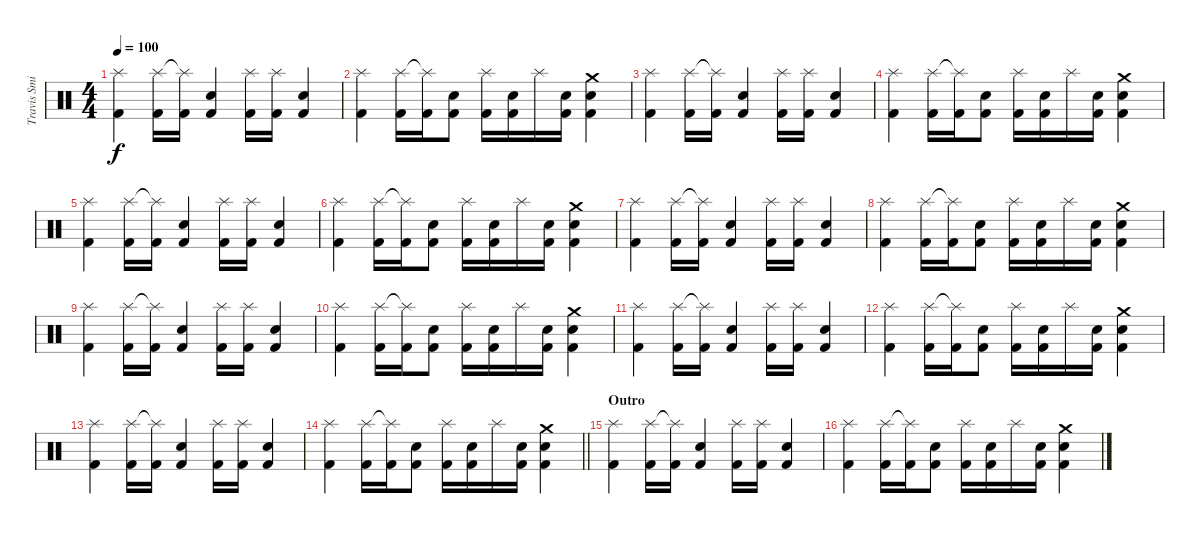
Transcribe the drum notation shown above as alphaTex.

\track ("Travis Smith" "Travis Smi") {instrument percussion}
\staff {score}
\articulation defaults
\ts (4 4)
\tempo 100
\clef neutral
\ks c
("Splash (hit)" "Kick (hit) 2").4{dy f} ("Splash (hit)" "Kick (hit) 2").16 ("Splash (hit)"{t} "Kick (hit) 2").16 ("Snare (hit) 2" "Kick (hit) 2").4 ("Splash (hit)" "Kick (hit) 2").16 ("Splash (hit)" "Kick (hit) 2").16 ("Snare (hit) 2" "Kick (hit) 2").4 |
("Splash (hit)" "Kick (hit) 2").4 ("Splash (hit)" "Kick (hit) 2").16 ("Splash (hit)"{t} "Kick (hit) 2").16 ("Snare (hit) 2" "Kick (hit) 2").8 ("Splash (hit)" "Kick (hit) 2").16 ("Snare (hit) 2" "Kick (hit) 2").16 "Splash (hit)".16 ("Snare (hit) 2" "Kick (hit) 2").16 ("Crash medium (hit)" "Snare (hit) 2" "Kick (hit) 2").4 |
("Splash (hit)" "Kick (hit) 2").4 ("Splash (hit)" "Kick (hit) 2").16 ("Splash (hit)"{t} "Kick (hit) 2").16 ("Snare (hit) 2" "Kick (hit) 2").4 ("Splash (hit)" "Kick (hit) 2").16 ("Splash (hit)" "Kick (hit) 2").16 ("Snare (hit) 2" "Kick (hit) 2").4 |
("Splash (hit)" "Kick (hit) 2").4 ("Splash (hit)" "Kick (hit) 2").16 ("Splash (hit)"{t} "Kick (hit) 2").16 ("Snare (hit) 2" "Kick (hit) 2").8 ("Splash (hit)" "Kick (hit) 2").16 ("Snare (hit) 2" "Kick (hit) 2").16 "Splash (hit)".16 ("Snare (hit) 2" "Kick (hit) 2").16 ("Crash medium (hit)" "Snare (hit) 2" "Kick (hit) 2").4 |
("Splash (hit)" "Kick (hit) 2").4 ("Splash (hit)" "Kick (hit) 2").16 ("Splash (hit)"{t} "Kick (hit) 2").16 ("Snare (hit) 2" "Kick (hit) 2").4 ("Splash (hit)" "Kick (hit) 2").16 ("Splash (hit)" "Kick (hit) 2").16 ("Snare (hit) 2" "Kick (hit) 2").4 |
("Splash (hit)" "Kick (hit) 2").4 ("Splash (hit)" "Kick (hit) 2").16 ("Splash (hit)"{t} "Kick (hit) 2").16 ("Snare (hit) 2" "Kick (hit) 2").8 ("Splash (hit)" "Kick (hit) 2").16 ("Snare (hit) 2" "Kick (hit) 2").16 "Splash (hit)".16 ("Snare (hit) 2" "Kick (hit) 2").16 ("Crash medium (hit)" "Snare (hit) 2" "Kick (hit) 2").4 |
("Splash (hit)" "Kick (hit) 2").4 ("Splash (hit)" "Kick (hit) 2").16 ("Splash (hit)"{t} "Kick (hit) 2").16 ("Snare (hit) 2" "Kick (hit) 2").4 ("Splash (hit)" "Kick (hit) 2").16 ("Splash (hit)" "Kick (hit) 2").16 ("Snare (hit) 2" "Kick (hit) 2").4 |
("Splash (hit)" "Kick (hit) 2").4 ("Splash (hit)" "Kick (hit) 2").16 ("Splash (hit)"{t} "Kick (hit) 2").16 ("Snare (hit) 2" "Kick (hit) 2").8 ("Splash (hit)" "Kick (hit) 2").16 ("Snare (hit) 2" "Kick (hit) 2").16 "Splash (hit)".16 ("Snare (hit) 2" "Kick (hit) 2").16 ("Crash medium (hit)" "Snare (hit) 2" "Kick (hit) 2").4 |
("Splash (hit)" "Kick (hit) 2").4 ("Splash (hit)" "Kick (hit) 2").16 ("Splash (hit)"{t} "Kick (hit) 2").16 ("Snare (hit) 2" "Kick (hit) 2").4 ("Splash (hit)" "Kick (hit) 2").16 ("Splash (hit)" "Kick (hit) 2").16 ("Snare (hit) 2" "Kick (hit) 2").4 |
("Splash (hit)" "Kick (hit) 2").4 ("Splash (hit)" "Kick (hit) 2").16 ("Splash (hit)"{t} "Kick (hit) 2").16 ("Snare (hit) 2" "Kick (hit) 2").8 ("Splash (hit)" "Kick (hit) 2").16 ("Snare (hit) 2" "Kick (hit) 2").16 "Splash (hit)".16 ("Snare (hit) 2" "Kick (hit) 2").16 ("Crash medium (hit)" "Snare (hit) 2" "Kick (hit) 2").4 |
("Splash (hit)" "Kick (hit) 2").4 ("Splash (hit)" "Kick (hit) 2").16 ("Splash (hit)"{t} "Kick (hit) 2").16 ("Snare (hit) 2" "Kick (hit) 2").4 ("Splash (hit)" "Kick (hit) 2").16 ("Splash (hit)" "Kick (hit) 2").16 ("Snare (hit) 2" "Kick (hit) 2").4 |
("Splash (hit)" "Kick (hit) 2").4 ("Splash (hit)" "Kick (hit) 2").16 ("Splash (hit)"{t} "Kick (hit) 2").16 ("Snare (hit) 2" "Kick (hit) 2").8 ("Splash (hit)" "Kick (hit) 2").16 ("Snare (hit) 2" "Kick (hit) 2").16 "Splash (hit)".16 ("Snare (hit) 2" "Kick (hit) 2").16 ("Crash medium (hit)" "Snare (hit) 2" "Kick (hit) 2").4 |
("Splash (hit)" "Kick (hit) 2").4{volume 0} ("Splash (hit)" "Kick (hit) 2").16 ("Splash (hit)"{t} "Kick (hit) 2").16 ("Snare (hit) 2" "Kick (hit) 2").4 ("Splash (hit)" "Kick (hit) 2").16 ("Splash (hit)" "Kick (hit) 2").16 ("Snare (hit) 2" "Kick (hit) 2").4 |
\barLineRight lightlight
("Splash (hit)" "Kick (hit) 2").4 ("Splash (hit)" "Kick (hit) 2").16 ("Splash (hit)"{t} "Kick (hit) 2").16 ("Snare (hit) 2" "Kick (hit) 2").8 ("Splash (hit)" "Kick (hit) 2").16 ("Snare (hit) 2" "Kick (hit) 2").16 "Splash (hit)".16 ("Snare (hit) 2" "Kick (hit) 2").16 ("Crash medium (hit)" "Snare (hit) 2" "Kick (hit) 2").4 |
\section ("" "Outro")
("Splash (hit)" "Kick (hit) 2").4 ("Splash (hit)" "Kick (hit) 2").16 ("Splash (hit)"{t} "Kick (hit) 2").16 ("Snare (hit) 2" "Kick (hit) 2").4 ("Splash (hit)" "Kick (hit) 2").16 ("Splash (hit)" "Kick (hit) 2").16 ("Snare (hit) 2" "Kick (hit) 2").4 |
("Splash (hit)" "Kick (hit) 2").4 ("Splash (hit)" "Kick (hit) 2").16 ("Splash (hit)"{t} "Kick (hit) 2").16 ("Snare (hit) 2" "Kick (hit) 2").8 ("Splash (hit)" "Kick (hit) 2").16 ("Snare (hit) 2" "Kick (hit) 2").16 "Splash (hit)".16 ("Snare (hit) 2" "Kick (hit) 2").16 ("Crash medium (hit)" "Snare (hit) 2" "Kick (hit) 2").4
